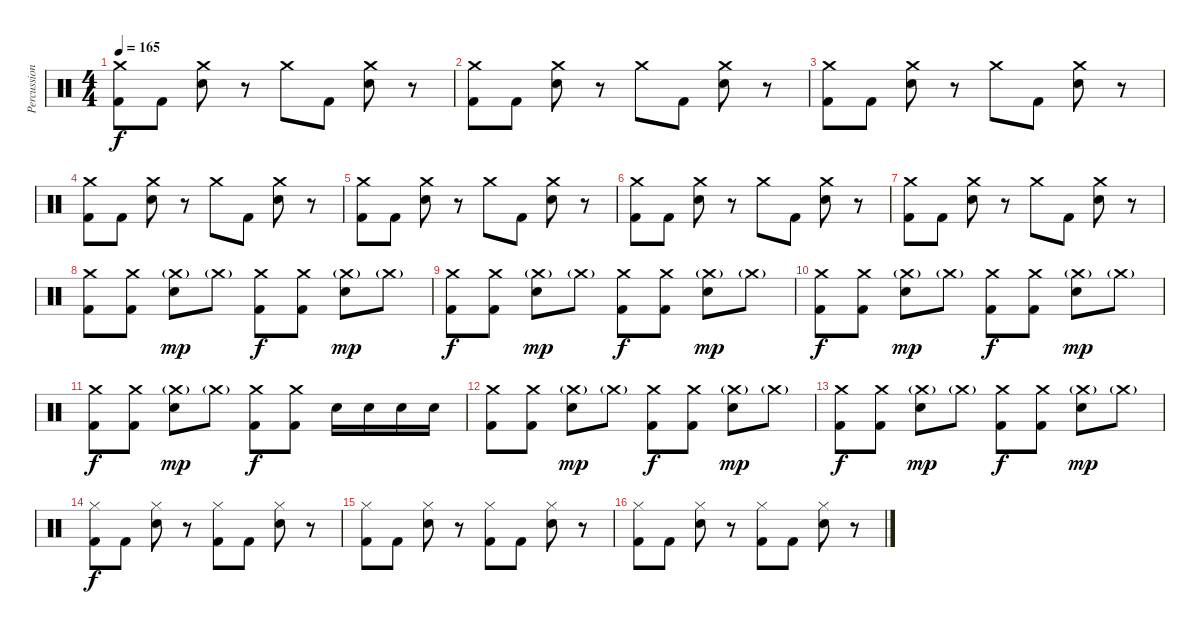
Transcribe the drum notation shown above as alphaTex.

\track ("Percussion" "Percussion") {instrument percussion}
\staff {score}
\articulation defaults
\ts (4 4)
\tempo 165
\clef neutral
\ks c
("Crash medium (hit)" "Kick (hit) 2").8{dy f} "Kick (hit) 2".8 ("Crash medium (hit)" "Electric Snare (hit)").8 r.8 "Crash medium (hit)".8 "Kick (hit) 2".8 ("Crash medium (hit)" "Electric Snare (hit)").8 r.8 |
("Crash medium (hit)" "Kick (hit) 2").8 "Kick (hit) 2".8 ("Crash medium (hit)" "Electric Snare (hit)").8 r.8 "Crash medium (hit)".8 "Kick (hit) 2".8 ("Crash medium (hit)" "Electric Snare (hit)").8 r.8 |
("Crash medium (hit)" "Kick (hit) 2").8 "Kick (hit) 2".8 ("Crash medium (hit)" "Electric Snare (hit)").8 r.8 "Crash medium (hit)".8 "Kick (hit) 2".8 ("Crash medium (hit)" "Electric Snare (hit)").8 r.8 |
("Crash medium (hit)" "Kick (hit) 2").8 "Kick (hit) 2".8 ("Crash medium (hit)" "Electric Snare (hit)").8 r.8 "Crash medium (hit)".8 "Kick (hit) 2".8 ("Crash medium (hit)" "Electric Snare (hit)").8 r.8 |
("Crash medium (hit)" "Kick (hit) 2").8 "Kick (hit) 2".8 ("Crash medium (hit)" "Electric Snare (hit)").8 r.8 "Crash medium (hit)".8 "Kick (hit) 2".8 ("Crash medium (hit)" "Electric Snare (hit)").8 r.8 |
("Crash medium (hit)" "Kick (hit) 2").8 "Kick (hit) 2".8 ("Crash medium (hit)" "Electric Snare (hit)").8 r.8 "Crash medium (hit)".8 "Kick (hit) 2".8 ("Crash medium (hit)" "Electric Snare (hit)").8 r.8 |
("Crash medium (hit)" "Kick (hit) 2").8 "Kick (hit) 2".8 ("Crash medium (hit)" "Electric Snare (hit)").8 r.8 "Crash medium (hit)".8 "Kick (hit) 2".8 ("Crash medium (hit)" "Electric Snare (hit)").8 r.8 |
("Crash medium (hit)" "Kick (hit) 2").8 ("Crash medium (hit)" "Kick (hit) 2").8 ("Crash medium (hit)"{g} "Electric Snare (hit)").8{dy mp} "Crash medium (hit)"{g}.8 ("Crash medium (hit)" "Kick (hit) 2").8{dy f} ("Crash medium (hit)" "Kick (hit) 2").8 ("Crash medium (hit)"{g} "Electric Snare (hit)").8{dy mp} "Crash medium (hit)"{g}.8 |
("Crash medium (hit)" "Kick (hit) 2").8{dy f} ("Crash medium (hit)" "Kick (hit) 2").8 ("Crash medium (hit)"{g} "Electric Snare (hit)").8{dy mp} "Crash medium (hit)"{g}.8 ("Crash medium (hit)" "Kick (hit) 2").8{dy f} ("Crash medium (hit)" "Kick (hit) 2").8 ("Crash medium (hit)"{g} "Electric Snare (hit)").8{dy mp} "Crash medium (hit)"{g}.8 |
("Crash medium (hit)" "Kick (hit) 2").8{dy f} ("Crash medium (hit)" "Kick (hit) 2").8 ("Crash medium (hit)"{g} "Electric Snare (hit)").8{dy mp} "Crash medium (hit)"{g}.8 ("Crash medium (hit)" "Kick (hit) 2").8{dy f} ("Crash medium (hit)" "Kick (hit) 2").8 ("Crash medium (hit)"{g} "Electric Snare (hit)").8{dy mp} "Crash medium (hit)"{g}.8 |
("Crash medium (hit)" "Kick (hit) 2").8{dy f} ("Crash medium (hit)" "Kick (hit) 2").8 ("Crash medium (hit)"{g} "Electric Snare (hit)").8{dy mp} "Crash medium (hit)"{g}.8 ("Crash medium (hit)" "Kick (hit) 2").8{dy f} ("Crash medium (hit)" "Kick (hit) 2").8 "Electric Snare (hit)".16 "Electric Snare (hit)".16 "Electric Snare (hit)".16 "Electric Snare (hit)".16 |
("Crash medium (hit)" "Kick (hit) 2").8 ("Crash medium (hit)" "Kick (hit) 2").8 ("Crash medium (hit)"{g} "Electric Snare (hit)").8{dy mp} "Crash medium (hit)"{g}.8 ("Crash medium (hit)" "Kick (hit) 2").8{dy f} ("Crash medium (hit)" "Kick (hit) 2").8 ("Crash medium (hit)"{g} "Electric Snare (hit)").8{dy mp} "Crash medium (hit)"{g}.8 |
("Crash medium (hit)" "Kick (hit) 2").8{dy f} ("Crash medium (hit)" "Kick (hit) 2").8 ("Crash medium (hit)"{g} "Electric Snare (hit)").8{dy mp} "Crash medium (hit)"{g}.8 ("Crash medium (hit)" "Kick (hit) 2").8{dy f} ("Crash medium (hit)" "Kick (hit) 2").8 ("Crash medium (hit)"{g} "Electric Snare (hit)").8{dy mp} "Crash medium (hit)"{g}.8 |
("Hi-Hat (closed)" "Kick (hit) 2").8{dy f} "Kick (hit) 2".8 ("Hi-Hat (closed)" "Electric Snare (hit)").8 r.8 ("Hi-Hat (closed)" "Kick (hit) 2").8 "Kick (hit) 2".8 ("Hi-Hat (closed)" "Electric Snare (hit)").8 r.8 |
("Hi-Hat (closed)" "Kick (hit) 2").8 "Kick (hit) 2".8 ("Hi-Hat (closed)" "Electric Snare (hit)").8 r.8 ("Hi-Hat (closed)" "Kick (hit) 2").8 "Kick (hit) 2".8 ("Hi-Hat (closed)" "Electric Snare (hit)").8 r.8 |
("Hi-Hat (closed)" "Kick (hit) 2").8 "Kick (hit) 2".8 ("Hi-Hat (closed)" "Electric Snare (hit)").8 r.8 ("Hi-Hat (closed)" "Kick (hit) 2").8 "Kick (hit) 2".8 ("Hi-Hat (closed)" "Electric Snare (hit)").8 r.8
